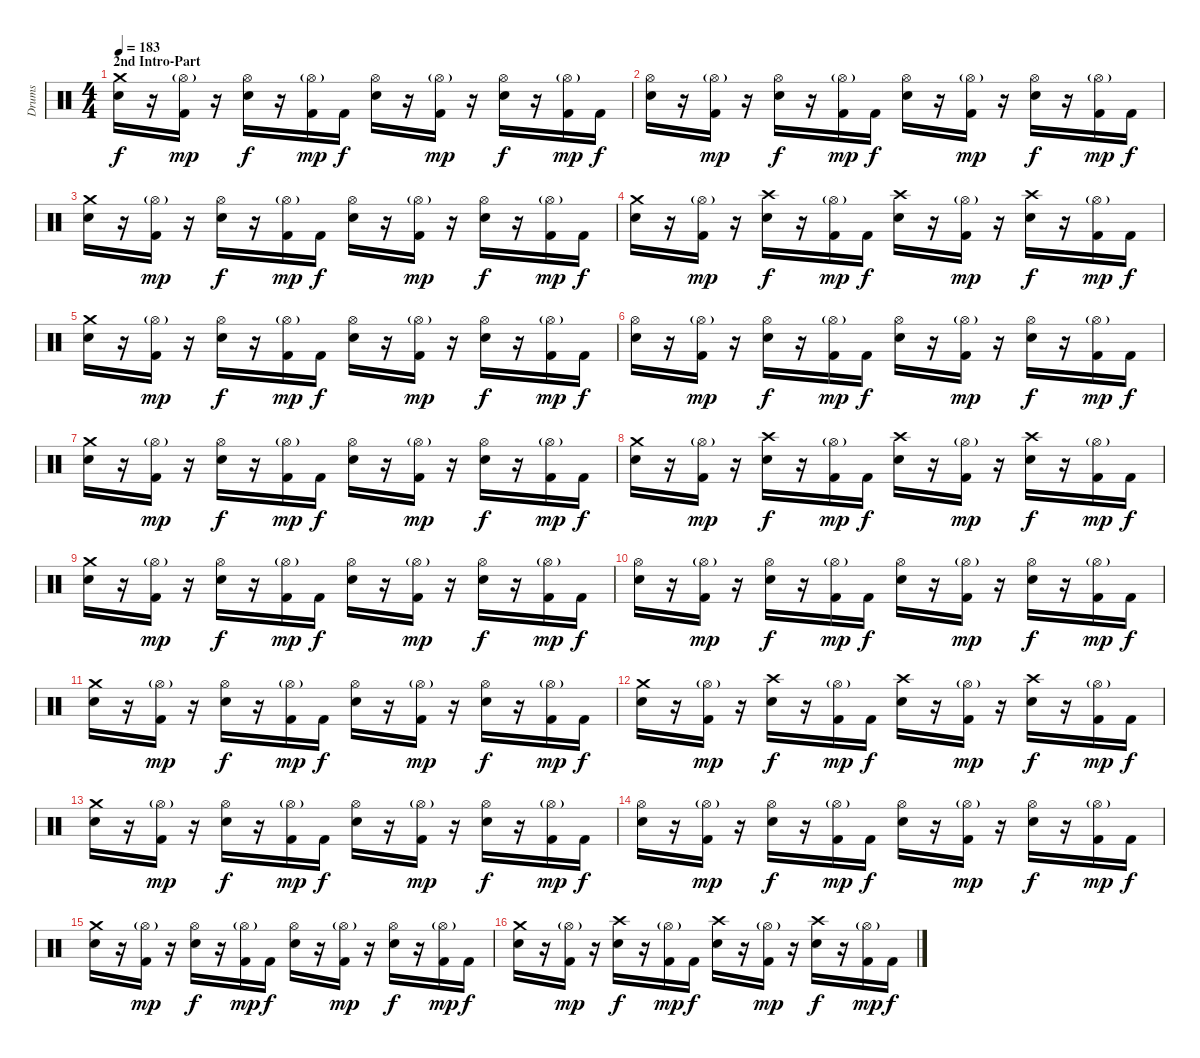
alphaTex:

\track ("Drums" "Drums") {instrument percussion}
\staff {score}
\articulation defaults
\ts (4 4)
\section ("" "2nd Intro-Part")
\tempo 183
\clef neutral
\ks c
("Crash medium (hit)" "Electric Snare (hit)").16{dy f} r.16 ("Hi-Hat (open)"{g} "Kick (hit) 2").16{dy mp} r.16 ("Hi-Hat (open)" "Electric Snare (hit)").16{dy f} r.16 ("Hi-Hat (open)"{g} "Kick (hit) 2").16{dy mp} "Kick (hit) 2".16{dy f} ("Hi-Hat (open)" "Electric Snare (hit)").16 r.16 ("Hi-Hat (open)"{g} "Kick (hit) 2").16{dy mp} r.16 ("Hi-Hat (open)" "Electric Snare (hit)").16{dy f} r.16 ("Hi-Hat (open)"{g} "Kick (hit) 2").16{dy mp} "Kick (hit) 2".16{dy f} |
("Hi-Hat (open)" "Electric Snare (hit)").16 r.16 ("Hi-Hat (open)"{g} "Kick (hit) 2").16{dy mp} r.16 ("Hi-Hat (open)" "Electric Snare (hit)").16{dy f} r.16 ("Hi-Hat (open)"{g} "Kick (hit) 2").16{dy mp} "Kick (hit) 2".16{dy f} ("Hi-Hat (open)" "Electric Snare (hit)").16 r.16 ("Hi-Hat (open)"{g} "Kick (hit) 2").16{dy mp} r.16 ("Hi-Hat (open)" "Electric Snare (hit)").16{dy f} r.16 ("Hi-Hat (open)"{g} "Kick (hit) 2").16{dy mp} "Kick (hit) 2".16{dy f} |
("Crash medium (hit)" "Electric Snare (hit)").16 r.16 ("Hi-Hat (open)"{g} "Kick (hit) 2").16{dy mp} r.16 ("Hi-Hat (open)" "Electric Snare (hit)").16{dy f} r.16 ("Hi-Hat (open)"{g} "Kick (hit) 2").16{dy mp} "Kick (hit) 2".16{dy f} ("Hi-Hat (open)" "Electric Snare (hit)").16 r.16 ("Hi-Hat (open)"{g} "Kick (hit) 2").16{dy mp} r.16 ("Hi-Hat (open)" "Electric Snare (hit)").16{dy f} r.16 ("Hi-Hat (open)"{g} "Kick (hit) 2").16{dy mp} "Kick (hit) 2".16{dy f} |
("Crash medium (hit)" "Electric Snare (hit)").16 r.16 ("Hi-Hat (open)"{g} "Kick (hit) 2").16{dy mp} r.16 ("Crash high (hit)" "Electric Snare (hit)").16{dy f} r.16 ("Hi-Hat (open)"{g} "Kick (hit) 2").16{dy mp} "Kick (hit) 2".16{dy f} ("Crash high (hit)" "Electric Snare (hit)").16 r.16 ("Hi-Hat (open)"{g} "Kick (hit) 2").16{dy mp} r.16 ("Crash high (hit)" "Electric Snare (hit)").16{dy f} r.16 ("Hi-Hat (open)"{g} "Kick (hit) 2").16{dy mp} "Kick (hit) 2".16{dy f} |
("Crash medium (hit)" "Electric Snare (hit)").16 r.16 ("Hi-Hat (open)"{g} "Kick (hit) 2").16{dy mp} r.16 ("Hi-Hat (open)" "Electric Snare (hit)").16{dy f} r.16 ("Hi-Hat (open)"{g} "Kick (hit) 2").16{dy mp} "Kick (hit) 2".16{dy f} ("Hi-Hat (open)" "Electric Snare (hit)").16 r.16 ("Hi-Hat (open)"{g} "Kick (hit) 2").16{dy mp} r.16 ("Hi-Hat (open)" "Electric Snare (hit)").16{dy f} r.16 ("Hi-Hat (open)"{g} "Kick (hit) 2").16{dy mp} "Kick (hit) 2".16{dy f} |
("Hi-Hat (open)" "Electric Snare (hit)").16 r.16 ("Hi-Hat (open)"{g} "Kick (hit) 2").16{dy mp} r.16 ("Hi-Hat (open)" "Electric Snare (hit)").16{dy f} r.16 ("Hi-Hat (open)"{g} "Kick (hit) 2").16{dy mp} "Kick (hit) 2".16{dy f} ("Hi-Hat (open)" "Electric Snare (hit)").16 r.16 ("Hi-Hat (open)"{g} "Kick (hit) 2").16{dy mp} r.16 ("Hi-Hat (open)" "Electric Snare (hit)").16{dy f} r.16 ("Hi-Hat (open)"{g} "Kick (hit) 2").16{dy mp} "Kick (hit) 2".16{dy f} |
("Crash medium (hit)" "Electric Snare (hit)").16 r.16 ("Hi-Hat (open)"{g} "Kick (hit) 2").16{dy mp} r.16 ("Hi-Hat (open)" "Electric Snare (hit)").16{dy f} r.16 ("Hi-Hat (open)"{g} "Kick (hit) 2").16{dy mp} "Kick (hit) 2".16{dy f} ("Hi-Hat (open)" "Electric Snare (hit)").16 r.16 ("Hi-Hat (open)"{g} "Kick (hit) 2").16{dy mp} r.16 ("Hi-Hat (open)" "Electric Snare (hit)").16{dy f} r.16 ("Hi-Hat (open)"{g} "Kick (hit) 2").16{dy mp} "Kick (hit) 2".16{dy f} |
("Crash medium (hit)" "Electric Snare (hit)").16 r.16 ("Hi-Hat (open)"{g} "Kick (hit) 2").16{dy mp} r.16 ("Crash high (hit)" "Electric Snare (hit)").16{dy f} r.16 ("Hi-Hat (open)"{g} "Kick (hit) 2").16{dy mp} "Kick (hit) 2".16{dy f} ("Crash high (hit)" "Electric Snare (hit)").16 r.16 ("Hi-Hat (open)"{g} "Kick (hit) 2").16{dy mp} r.16 ("Crash high (hit)" "Electric Snare (hit)").16{dy f} r.16 ("Hi-Hat (open)"{g} "Kick (hit) 2").16{dy mp} "Kick (hit) 2".16{dy f} |
("Crash medium (hit)" "Electric Snare (hit)").16 r.16 ("Hi-Hat (open)"{g} "Kick (hit) 2").16{dy mp} r.16 ("Hi-Hat (open)" "Electric Snare (hit)").16{dy f} r.16 ("Hi-Hat (open)"{g} "Kick (hit) 2").16{dy mp} "Kick (hit) 2".16{dy f} ("Hi-Hat (open)" "Electric Snare (hit)").16 r.16 ("Hi-Hat (open)"{g} "Kick (hit) 2").16{dy mp} r.16 ("Hi-Hat (open)" "Electric Snare (hit)").16{dy f} r.16 ("Hi-Hat (open)"{g} "Kick (hit) 2").16{dy mp} "Kick (hit) 2".16{dy f} |
("Hi-Hat (open)" "Electric Snare (hit)").16 r.16 ("Hi-Hat (open)"{g} "Kick (hit) 2").16{dy mp} r.16 ("Hi-Hat (open)" "Electric Snare (hit)").16{dy f} r.16 ("Hi-Hat (open)"{g} "Kick (hit) 2").16{dy mp} "Kick (hit) 2".16{dy f} ("Hi-Hat (open)" "Electric Snare (hit)").16 r.16 ("Hi-Hat (open)"{g} "Kick (hit) 2").16{dy mp} r.16 ("Hi-Hat (open)" "Electric Snare (hit)").16{dy f} r.16 ("Hi-Hat (open)"{g} "Kick (hit) 2").16{dy mp} "Kick (hit) 2".16{dy f} |
("Crash medium (hit)" "Electric Snare (hit)").16 r.16 ("Hi-Hat (open)"{g} "Kick (hit) 2").16{dy mp} r.16 ("Hi-Hat (open)" "Electric Snare (hit)").16{dy f} r.16 ("Hi-Hat (open)"{g} "Kick (hit) 2").16{dy mp} "Kick (hit) 2".16{dy f} ("Hi-Hat (open)" "Electric Snare (hit)").16 r.16 ("Hi-Hat (open)"{g} "Kick (hit) 2").16{dy mp} r.16 ("Hi-Hat (open)" "Electric Snare (hit)").16{dy f} r.16 ("Hi-Hat (open)"{g} "Kick (hit) 2").16{dy mp} "Kick (hit) 2".16{dy f} |
("Crash medium (hit)" "Electric Snare (hit)").16 r.16 ("Hi-Hat (open)"{g} "Kick (hit) 2").16{dy mp} r.16 ("Crash high (hit)" "Electric Snare (hit)").16{dy f} r.16 ("Hi-Hat (open)"{g} "Kick (hit) 2").16{dy mp} "Kick (hit) 2".16{dy f} ("Crash high (hit)" "Electric Snare (hit)").16 r.16 ("Hi-Hat (open)"{g} "Kick (hit) 2").16{dy mp} r.16 ("Crash high (hit)" "Electric Snare (hit)").16{dy f} r.16 ("Hi-Hat (open)"{g} "Kick (hit) 2").16{dy mp} "Kick (hit) 2".16{dy f} |
("Crash medium (hit)" "Electric Snare (hit)").16 r.16 ("Hi-Hat (open)"{g} "Kick (hit) 2").16{dy mp} r.16 ("Hi-Hat (open)" "Electric Snare (hit)").16{dy f} r.16 ("Hi-Hat (open)"{g} "Kick (hit) 2").16{dy mp} "Kick (hit) 2".16{dy f} ("Hi-Hat (open)" "Electric Snare (hit)").16 r.16 ("Hi-Hat (open)"{g} "Kick (hit) 2").16{dy mp} r.16 ("Hi-Hat (open)" "Electric Snare (hit)").16{dy f} r.16 ("Hi-Hat (open)"{g} "Kick (hit) 2").16{dy mp} "Kick (hit) 2".16{dy f} |
("Hi-Hat (open)" "Electric Snare (hit)").16 r.16 ("Hi-Hat (open)"{g} "Kick (hit) 2").16{dy mp} r.16 ("Hi-Hat (open)" "Electric Snare (hit)").16{dy f} r.16 ("Hi-Hat (open)"{g} "Kick (hit) 2").16{dy mp} "Kick (hit) 2".16{dy f} ("Hi-Hat (open)" "Electric Snare (hit)").16 r.16 ("Hi-Hat (open)"{g} "Kick (hit) 2").16{dy mp} r.16 ("Hi-Hat (open)" "Electric Snare (hit)").16{dy f} r.16 ("Hi-Hat (open)"{g} "Kick (hit) 2").16{dy mp} "Kick (hit) 2".16{dy f} |
("Crash medium (hit)" "Electric Snare (hit)").16 r.16 ("Hi-Hat (open)"{g} "Kick (hit) 2").16{dy mp} r.16 ("Hi-Hat (open)" "Electric Snare (hit)").16{dy f} r.16 ("Hi-Hat (open)"{g} "Kick (hit) 2").16{dy mp} "Kick (hit) 2".16{dy f} ("Hi-Hat (open)" "Electric Snare (hit)").16 r.16 ("Hi-Hat (open)"{g} "Kick (hit) 2").16{dy mp} r.16 ("Hi-Hat (open)" "Electric Snare (hit)").16{dy f} r.16 ("Hi-Hat (open)"{g} "Kick (hit) 2").16{dy mp} "Kick (hit) 2".16{dy f} |
("Crash medium (hit)" "Electric Snare (hit)").16 r.16 ("Hi-Hat (open)"{g} "Kick (hit) 2").16{dy mp} r.16 ("Crash high (hit)" "Electric Snare (hit)").16{dy f} r.16 ("Hi-Hat (open)"{g} "Kick (hit) 2").16{dy mp} "Kick (hit) 2".16{dy f} ("Crash high (hit)" "Electric Snare (hit)").16 r.16 ("Hi-Hat (open)"{g} "Kick (hit) 2").16{dy mp} r.16 ("Crash high (hit)" "Electric Snare (hit)").16{dy f} r.16 ("Hi-Hat (open)"{g} "Kick (hit) 2").16{dy mp} "Kick (hit) 2".16{dy f}
